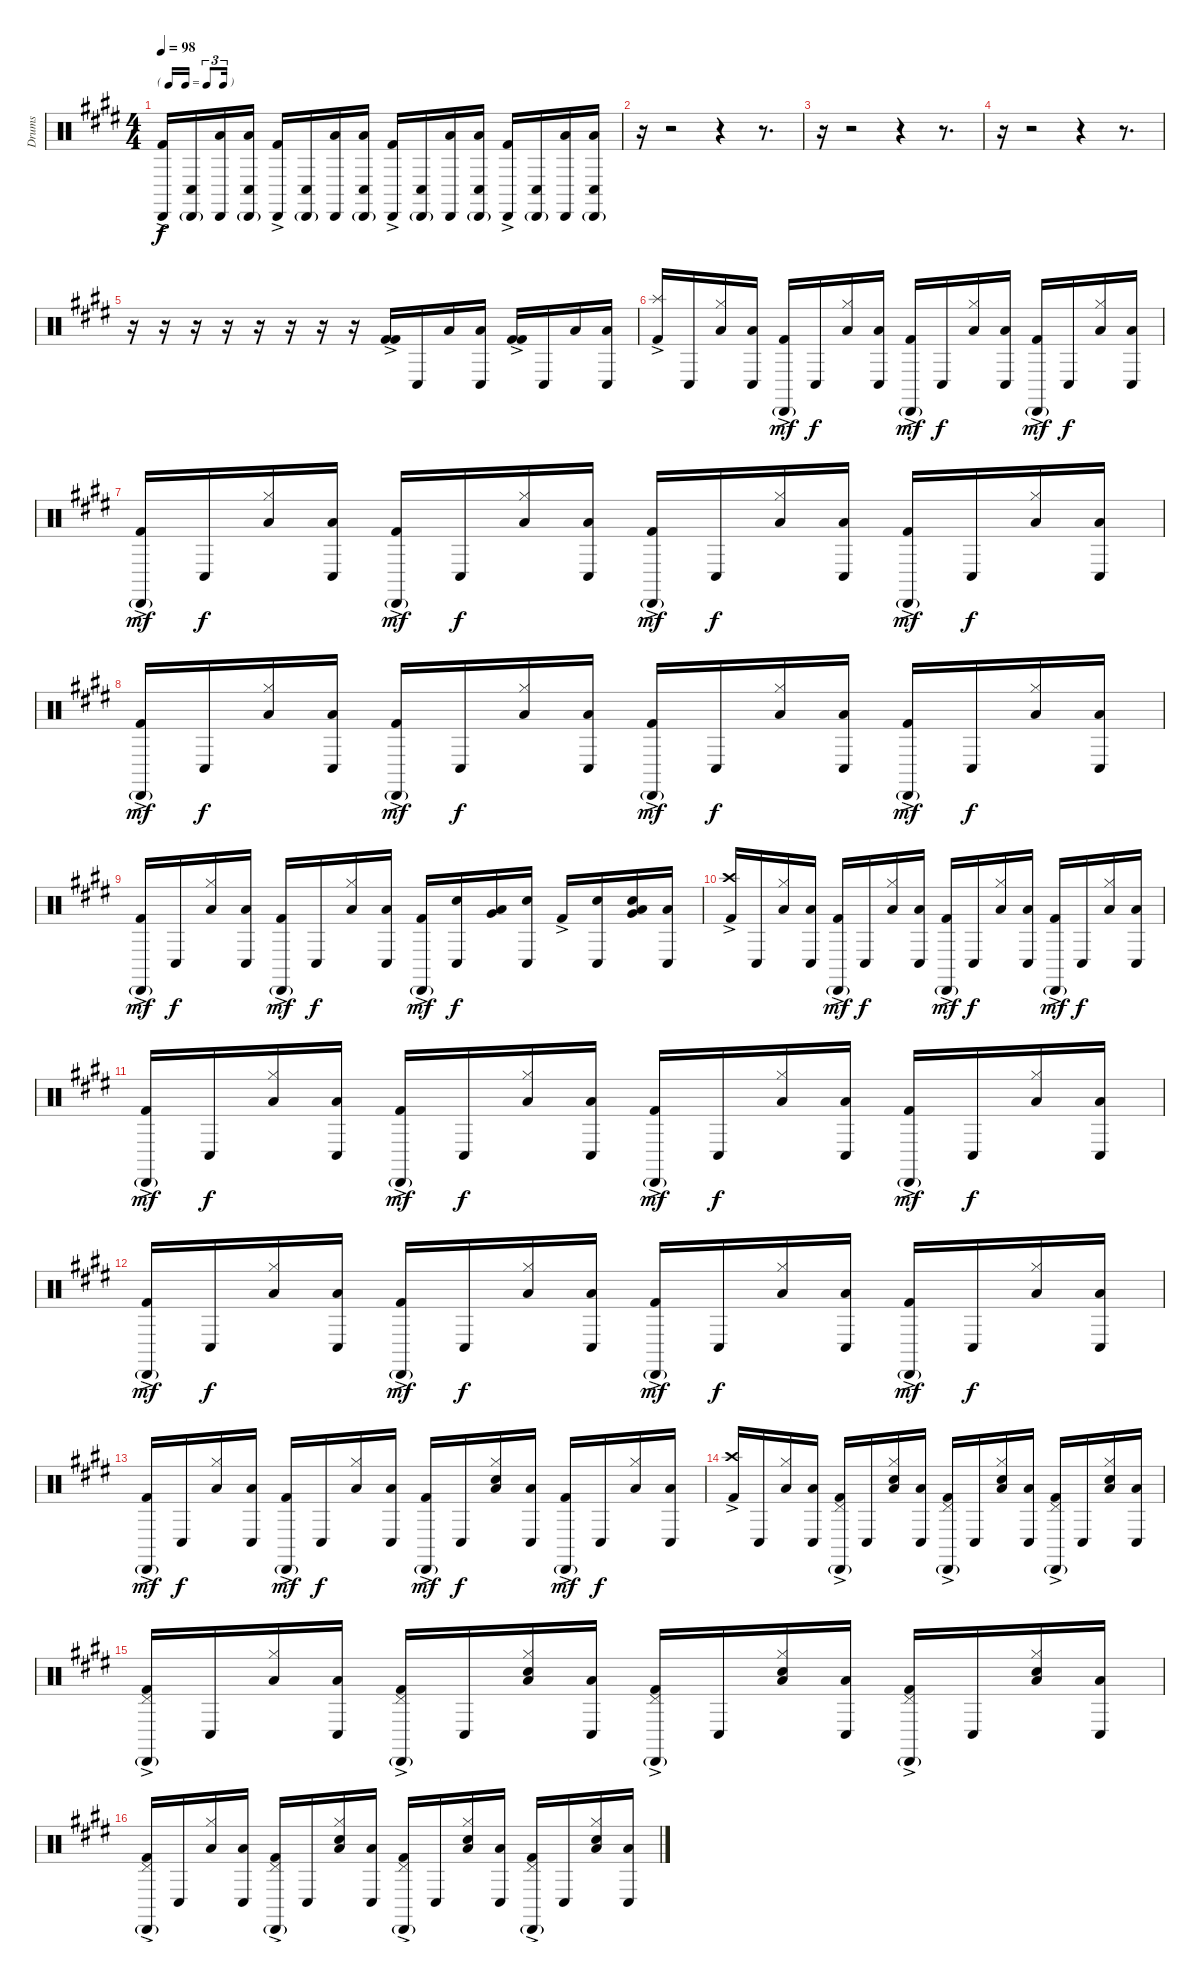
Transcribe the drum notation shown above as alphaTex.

\track ("Drums" "Drums") {instrument percussion}
\staff {score}
\articulation defaults
\ts (4 4)
\tf triplet16th
\tempo 98
\clef neutral
\ks e
("Cabasa (hit)" "Kick (hit) 2"{ac}).16{dy f} ("Cabasa (hit)"{g} "Conga low (hit)").16 ("Cabasa (hit)" "Low Tom (hit)").16 ("Cabasa (hit)"{g} "Low Tom (hit)" "Conga low (hit)").16 ("Cabasa (hit)" "Kick (hit) 2"{ac}).16 ("Cabasa (hit)"{g} "Conga low (hit)").16 ("Cabasa (hit)" "Low Tom (hit)").16 ("Cabasa (hit)"{g} "Low Tom (hit)" "Conga low (hit)").16 ("Cabasa (hit)" "Kick (hit) 2"{ac}).16 ("Cabasa (hit)"{g} "Conga low (hit)").16 ("Cabasa (hit)" "Low Tom (hit)").16 ("Cabasa (hit)"{g} "Low Tom (hit)" "Conga low (hit)").16 ("Cabasa (hit)" "Kick (hit) 2"{ac}).16 ("Cabasa (hit)"{g} "Conga low (hit)").16 ("Cabasa (hit)" "Low Tom (hit)").16 ("Cabasa (hit)"{g} "Low Tom (hit)" "Conga low (hit)").16 |
r.16 r.2 r.4 r.8{d} |
r.16 r.2 r.4 r.8{d} |
r.16 r.2 r.4 r.8{d} |
r.16 r.16 r.16 r.16 r.16 r.16 r.16 r.16 ("Kick (hit) 2"{ac} "Kick (hit) 2"{ac}).16 "Conga low (hit)".16 "Low Tom (hit)".16 ("Low Tom (hit)" "Conga low (hit)").16 ("Kick (hit) 2"{ac} "Kick (hit) 2"{ac}).16 "Conga low (hit)".16 "Low Tom (hit)".16 ("Low Tom (hit)" "Conga low (hit)").16 |
("Splash (hit)" "Kick (hit) 2"{ac}).16 "Conga low (hit)".16 ("Hi-Hat (closed)" "Low Tom (hit)").16 ("Low Tom (hit)" "Conga low (hit)").16 ("Cabasa (hit)"{g} "Kick (hit) 2"{ac}).16{dy mf} "Conga low (hit)".16{dy f} ("Hi-Hat (closed)" "Low Tom (hit)").16 ("Low Tom (hit)" "Conga low (hit)").16 ("Cabasa (hit)"{g} "Kick (hit) 2"{ac}).16{dy mf} "Conga low (hit)".16{dy f} ("Hi-Hat (closed)" "Low Tom (hit)").16 ("Low Tom (hit)" "Conga low (hit)").16 ("Cabasa (hit)"{g} "Kick (hit) 2"{ac}).16{dy mf} "Conga low (hit)".16{dy f} ("Hi-Hat (closed)" "Low Tom (hit)").16 ("Low Tom (hit)" "Conga low (hit)").16 |
("Cabasa (hit)"{g} "Kick (hit) 2"{ac}).16{dy mf} "Conga low (hit)".16{dy f} ("Hi-Hat (closed)" "Low Tom (hit)").16 ("Low Tom (hit)" "Conga low (hit)").16 ("Cabasa (hit)"{g} "Kick (hit) 2"{ac}).16{dy mf} "Conga low (hit)".16{dy f} ("Hi-Hat (closed)" "Low Tom (hit)").16 ("Low Tom (hit)" "Conga low (hit)").16 ("Cabasa (hit)"{g} "Kick (hit) 2"{ac}).16{dy mf} "Conga low (hit)".16{dy f} ("Hi-Hat (closed)" "Low Tom (hit)").16 ("Low Tom (hit)" "Conga low (hit)").16 ("Cabasa (hit)"{g} "Kick (hit) 2"{ac}).16{dy mf} "Conga low (hit)".16{dy f} ("Hi-Hat (closed)" "Low Tom (hit)").16 ("Low Tom (hit)" "Conga low (hit)").16 |
("Cabasa (hit)"{g} "Kick (hit) 2"{ac}).16{dy mf} "Conga low (hit)".16{dy f} ("Hi-Hat (closed)" "Low Tom (hit)").16 ("Low Tom (hit)" "Conga low (hit)").16 ("Cabasa (hit)"{g} "Kick (hit) 2"{ac}).16{dy mf} "Conga low (hit)".16{dy f} ("Hi-Hat (closed)" "Low Tom (hit)").16 ("Low Tom (hit)" "Conga low (hit)").16 ("Cabasa (hit)"{g} "Kick (hit) 2"{ac}).16{dy mf} "Conga low (hit)".16{dy f} ("Hi-Hat (closed)" "Low Tom (hit)").16 ("Low Tom (hit)" "Conga low (hit)").16 ("Cabasa (hit)"{g} "Kick (hit) 2"{ac}).16{dy mf} "Conga low (hit)".16{dy f} ("Hi-Hat (closed)" "Low Tom (hit)").16 ("Low Tom (hit)" "Conga low (hit)").16 |
("Cabasa (hit)"{g} "Kick (hit) 2"{ac}).16{dy mf} "Conga low (hit)".16{dy f} ("Hi-Hat (closed)" "Low Tom (hit)").16 ("Low Tom (hit)" "Conga low (hit)").16 ("Cabasa (hit)"{g} "Kick (hit) 2"{ac}).16{dy mf} "Conga low (hit)".16{dy f} ("Hi-Hat (closed)" "Low Tom (hit)").16 ("Low Tom (hit)" "Conga low (hit)").16 ("Cabasa (hit)"{g} "Kick (hit) 2"{ac}).16{dy mf} ("Conga low (hit)" "Snare (hit) 2").16{dy f} ("Low Tom (hit)" "Very Low Tom (hit)").16 ("Conga low (hit)" "Snare (hit) 2").16 "Kick (hit) 2"{ac}.16 ("Conga low (hit)" "Snare (hit) 2").16 ("Low Tom (hit)" "Very Low Tom (hit)" "Snare (hit) 2").16 ("Low Tom (hit)" "Conga low (hit)").16 |
("Crash high (hit)" "Kick (hit) 2"{ac}).16 "Conga low (hit)".16 ("Hi-Hat (closed)" "Low Tom (hit)").16 ("Low Tom (hit)" "Conga low (hit)").16 ("Cabasa (hit)"{g} "Kick (hit) 2"{ac}).16{dy mf} "Conga low (hit)".16{dy f} ("Hi-Hat (closed)" "Low Tom (hit)").16 ("Low Tom (hit)" "Conga low (hit)").16 ("Cabasa (hit)"{g} "Kick (hit) 2"{ac}).16{dy mf} "Conga low (hit)".16{dy f} ("Hi-Hat (closed)" "Low Tom (hit)").16 ("Low Tom (hit)" "Conga low (hit)").16 ("Cabasa (hit)"{g} "Kick (hit) 2"{ac}).16{dy mf} "Conga low (hit)".16{dy f} ("Hi-Hat (closed)" "Low Tom (hit)").16 ("Low Tom (hit)" "Conga low (hit)").16 |
("Cabasa (hit)"{g} "Kick (hit) 2"{ac}).16{dy mf} "Conga low (hit)".16{dy f} ("Hi-Hat (closed)" "Low Tom (hit)").16 ("Low Tom (hit)" "Conga low (hit)").16 ("Cabasa (hit)"{g} "Kick (hit) 2"{ac}).16{dy mf} "Conga low (hit)".16{dy f} ("Hi-Hat (closed)" "Low Tom (hit)").16 ("Low Tom (hit)" "Conga low (hit)").16 ("Cabasa (hit)"{g} "Kick (hit) 2"{ac}).16{dy mf} "Conga low (hit)".16{dy f} ("Hi-Hat (closed)" "Low Tom (hit)").16 ("Low Tom (hit)" "Conga low (hit)").16 ("Cabasa (hit)"{g} "Kick (hit) 2"{ac}).16{dy mf} "Conga low (hit)".16{dy f} ("Hi-Hat (closed)" "Low Tom (hit)").16 ("Low Tom (hit)" "Conga low (hit)").16 |
("Cabasa (hit)"{g} "Kick (hit) 2"{ac}).16{dy mf} "Conga low (hit)".16{dy f} ("Hi-Hat (closed)" "Low Tom (hit)").16 ("Low Tom (hit)" "Conga low (hit)").16 ("Cabasa (hit)"{g} "Kick (hit) 2"{ac}).16{dy mf} "Conga low (hit)".16{dy f} ("Hi-Hat (closed)" "Low Tom (hit)").16 ("Low Tom (hit)" "Conga low (hit)").16 ("Cabasa (hit)"{g} "Kick (hit) 2"{ac}).16{dy mf} "Conga low (hit)".16{dy f} ("Hi-Hat (closed)" "Low Tom (hit)").16 ("Low Tom (hit)" "Conga low (hit)").16 ("Cabasa (hit)"{g} "Kick (hit) 2"{ac}).16{dy mf} "Conga low (hit)".16{dy f} ("Hi-Hat (closed)" "Low Tom (hit)").16 ("Low Tom (hit)" "Conga low (hit)").16 |
("Cabasa (hit)"{g} "Kick (hit) 2"{ac}).16{dy mf} "Conga low (hit)".16{dy f} ("Hi-Hat (closed)" "Low Tom (hit)").16 ("Low Tom (hit)" "Conga low (hit)").16 ("Cabasa (hit)"{g} "Kick (hit) 2"{ac}).16{dy mf} "Conga low (hit)".16{dy f} ("Hi-Hat (closed)" "Low Tom (hit)").16 ("Low Tom (hit)" "Conga low (hit)").16 ("Cabasa (hit)"{g} "Kick (hit) 2"{ac}).16{dy mf} "Conga low (hit)".16{dy f} ("Hi-Hat (closed)" "Low Tom (hit)" "Snare (hit) 2").16 ("Low Tom (hit)" "Conga low (hit)").16 ("Cabasa (hit)"{g} "Kick (hit) 2"{ac}).16{dy mf} "Conga low (hit)".16{dy f} ("Hi-Hat (closed)" "Low Tom (hit)").16 ("Low Tom (hit)" "Conga low (hit)").16 |
("Crash high (hit)" "Kick (hit) 2"{ac}).16 "Conga low (hit)".16 ("Hi-Hat (closed)" "Low Tom (hit)").16 ("Low Tom (hit)" "Conga low (hit)").16 ("Pedal Hi-Hat (hit)" "Cabasa (hit)"{g} "Kick (hit) 2"{ac}).16 "Conga low (hit)".16 ("Hi-Hat (closed)" "Low Tom (hit)" "Hand Clap (hit)").16 ("Low Tom (hit)" "Conga low (hit)").16 ("Pedal Hi-Hat (hit)" "Cabasa (hit)"{g} "Kick (hit) 2"{ac}).16 "Conga low (hit)".16 ("Hi-Hat (closed)" "Low Tom (hit)" "Hand Clap (hit)").16 ("Low Tom (hit)" "Conga low (hit)").16 ("Pedal Hi-Hat (hit)" "Cabasa (hit)"{g} "Kick (hit) 2"{ac}).16 "Conga low (hit)".16 ("Hi-Hat (closed)" "Low Tom (hit)" "Hand Clap (hit)").16 ("Low Tom (hit)" "Conga low (hit)").16 |
("Pedal Hi-Hat (hit)" "Cabasa (hit)"{g} "Kick (hit) 2"{ac}).16 "Conga low (hit)".16 ("Hi-Hat (closed)" "Low Tom (hit)").16 ("Low Tom (hit)" "Conga low (hit)").16 ("Pedal Hi-Hat (hit)" "Cabasa (hit)"{g} "Kick (hit) 2"{ac}).16 "Conga low (hit)".16 ("Hi-Hat (closed)" "Low Tom (hit)" "Hand Clap (hit)").16 ("Low Tom (hit)" "Conga low (hit)").16 ("Pedal Hi-Hat (hit)" "Cabasa (hit)"{g} "Kick (hit) 2"{ac}).16 "Conga low (hit)".16 ("Hi-Hat (closed)" "Low Tom (hit)" "Hand Clap (hit)").16 ("Low Tom (hit)" "Conga low (hit)").16 ("Pedal Hi-Hat (hit)" "Cabasa (hit)"{g} "Kick (hit) 2"{ac}).16 "Conga low (hit)".16 ("Hi-Hat (closed)" "Low Tom (hit)" "Hand Clap (hit)").16 ("Low Tom (hit)" "Conga low (hit)").16 |
("Pedal Hi-Hat (hit)" "Cabasa (hit)"{g} "Kick (hit) 2"{ac}).16 "Conga low (hit)".16 ("Hi-Hat (closed)" "Low Tom (hit)").16 ("Low Tom (hit)" "Conga low (hit)").16 ("Pedal Hi-Hat (hit)" "Cabasa (hit)"{g} "Kick (hit) 2"{ac}).16 "Conga low (hit)".16 ("Hi-Hat (closed)" "Low Tom (hit)" "Hand Clap (hit)").16 ("Low Tom (hit)" "Conga low (hit)").16 ("Pedal Hi-Hat (hit)" "Cabasa (hit)"{g} "Kick (hit) 2"{ac}).16 "Conga low (hit)".16 ("Hi-Hat (closed)" "Low Tom (hit)" "Hand Clap (hit)").16 ("Low Tom (hit)" "Conga low (hit)").16 ("Pedal Hi-Hat (hit)" "Cabasa (hit)"{g} "Kick (hit) 2"{ac}).16 "Conga low (hit)".16 ("Hi-Hat (closed)" "Low Tom (hit)" "Hand Clap (hit)").16 ("Low Tom (hit)" "Conga low (hit)").16
